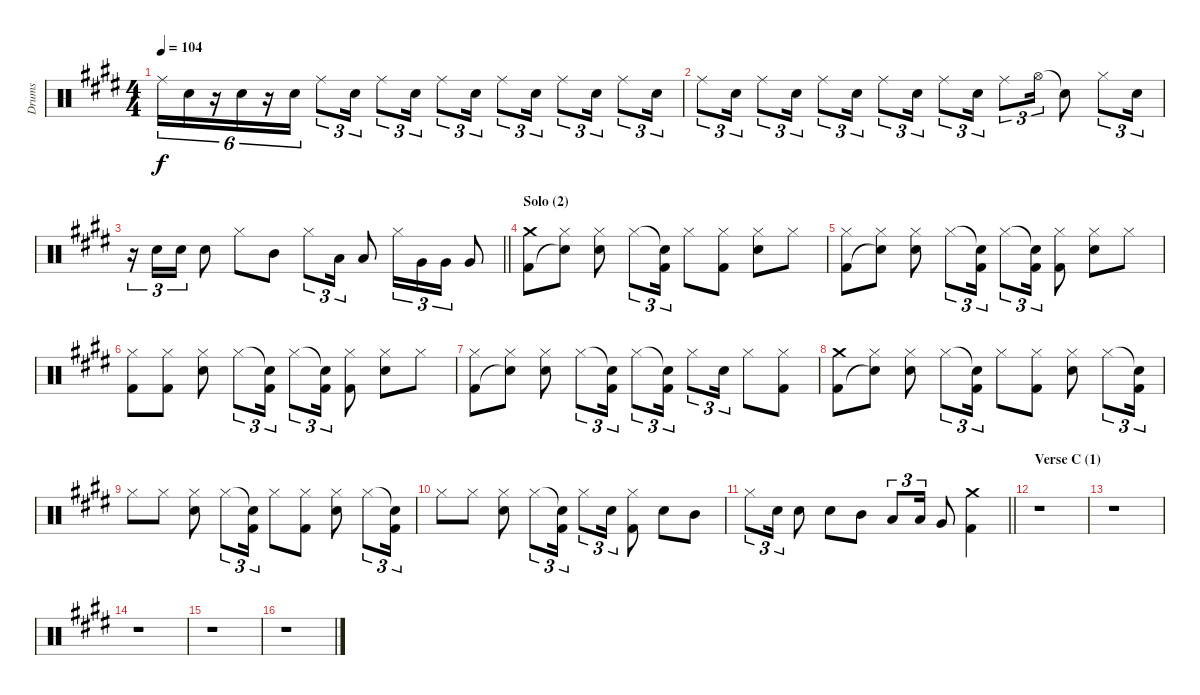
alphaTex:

\track ("Drums" "Drums") {instrument percussion}
\staff {score}
\articulation defaults
\ts (4 4)
\tempo 104
\clef neutral
\ks c#minor "Ride (middle)".16{tu (6 4) dy f} "Electric Snare (hit)".16{tu (6 4)}
r.16{tu (6 4)} "Electric Snare (hit)".16{tu (6 4)} r.16{tu (6 4)} "Electric Snare (hit)".16{tu (6 4)} "Ride (middle)".8{tu (3 2)} "Electric Snare (hit)".16{tu (3 2)} "Ride (middle)".8{tu (3 2)} "Electric Snare (hit)".16{tu (3 2)} "Ride (middle)".8{tu (3 2)} "Electric Snare (hit)".16{tu (3 2)} "Ride (middle)".8{tu (3 2)} "Electric Snare (hit)".16{tu (3 2)} "Ride (middle)".8{tu (3 2)} "Electric Snare (hit)".16{tu (3 2)} "Ride (middle)".8{tu (3 2)} "Electric Snare (hit)".16{tu (3 2)} |
"Ride (middle)".8{tu (3 2)} "Electric Snare (hit)".16{tu (3 2)} "Ride (middle)".8{tu (3 2)} "Electric Snare (hit)".16{tu (3 2)} "Ride (middle)".8{tu (3 2)} "Electric Snare (hit)".16{tu (3 2)} "Ride (middle)".8{tu (3 2)} "Electric Snare (hit)".16{tu (3 2)} "Ride (middle)".8{tu (3 2)} "Electric Snare (hit)".16{tu (3 2)} "Ride (middle)".8{tu (3 2)} "Hi-Hat (open)".16{tu (3 2)} "Snare (hit)"{t}.8 "Hi-Hat (closed)".8{tu (3 2)} "Electric Snare (hit)".16{tu (3 2)} |
\barLineRight lightlight
r.16{tu (3 2)} "Electric Snare (hit)".16{tu (3 2)} "Electric Snare (hit)".16{tu (3 2)} "Electric Snare (hit)".8 "Hi-Hat (closed)".8 "Mid Tom (hit)".8 "Hi-Hat (closed)".8{tu (3 2)} "Low Tom (hit)".16{tu (3 2)} "Low Tom (hit)".8 "Hi-Hat (closed)".16{tu (3 2)} "Very Low Tom (hit)".16{tu (3 2)} "Very Low Tom (hit)".16{tu (3 2)} "Very Low Tom (hit)".8 |
\section ("" "Solo (2)")
("Crash medium (hit)" "Kick (hit) 2").8 ("Hi-Hat (closed)" "Snare (hit)"{t}).8 ("Hi-Hat (closed)" "Electric Snare (hit)").8 "Hi-Hat (closed)".8{tu (3 2)} ("Snare (hit)"{t} "Kick (hit) 2").16{tu (3 2)} "Hi-Hat (closed)".8 ("Hi-Hat (closed)" "Kick (hit) 2").8 ("Hi-Hat (closed)" "Electric Snare (hit)").8 "Hi-Hat (closed)".8 |
("Hi-Hat (closed)" "Kick (hit) 2").8 ("Hi-Hat (closed)" "Snare (hit)"{t}).8 ("Hi-Hat (closed)" "Electric Snare (hit)").8 "Hi-Hat (closed)".8{tu (3 2)} ("Snare (hit)"{t} "Kick (hit) 2").16{tu (3 2)} "Hi-Hat (closed)".8{tu (3 2)} ("Snare (hit)"{t} "Kick (hit) 2").16{tu (3 2)} ("Hi-Hat (closed)" "Kick (hit) 2").8 ("Hi-Hat (closed)" "Electric Snare (hit)").8 "Hi-Hat (closed)".8 |
("Hi-Hat (closed)" "Kick (hit) 2").8 ("Hi-Hat (closed)" "Kick (hit) 2").8 ("Hi-Hat (closed)" "Electric Snare (hit)").8 "Hi-Hat (closed)".8{tu (3 2)} ("Snare (hit)"{t} "Kick (hit) 2").16{tu (3 2)} "Hi-Hat (closed)".8{tu (3 2)} ("Snare (hit)"{t} "Kick (hit) 2").16{tu (3 2)} ("Hi-Hat (closed)" "Kick (hit) 2").8 ("Hi-Hat (closed)" "Electric Snare (hit)").8 "Hi-Hat (closed)".8 |
("Hi-Hat (closed)" "Kick (hit) 2").8 ("Hi-Hat (closed)" "Snare (hit)"{t}).8 ("Hi-Hat (closed)" "Electric Snare (hit)").8 "Hi-Hat (closed)".8{tu (3 2)} ("Snare (hit)"{t} "Kick (hit) 2").16{tu (3 2)} "Hi-Hat (closed)".8{tu (3 2)} ("Snare (hit)"{t} "Kick (hit) 2").16{tu (3 2)} "Hi-Hat (closed)".8{tu (3 2)} "Electric Snare (hit)".16{tu (3 2)} "Hi-Hat (closed)".8 ("Hi-Hat (closed)" "Kick (hit) 2").8 |
("Crash medium (hit)" "Kick (hit) 2").8 ("Hi-Hat (closed)" "Snare (hit)"{t}).8 ("Hi-Hat (closed)" "Electric Snare (hit)").8 "Hi-Hat (closed)".8{tu (3 2)} ("Snare (hit)"{t} "Kick (hit) 2").16{tu (3 2)} "Hi-Hat (closed)".8 ("Hi-Hat (closed)" "Kick (hit) 2").8 ("Hi-Hat (closed)" "Electric Snare (hit)").8 "Hi-Hat (closed)".8{tu (3 2)} ("Snare (hit)"{t} "Kick (hit) 2").16{tu (3 2)} |
"Hi-Hat (closed)".8 "Hi-Hat (closed)".8 ("Hi-Hat (closed)" "Electric Snare (hit)").8 "Hi-Hat (closed)".8{tu (3 2)} ("Snare (hit)"{t} "Kick (hit) 2").16{tu (3 2)} "Hi-Hat (closed)".8 ("Hi-Hat (closed)" "Kick (hit) 2").8 ("Hi-Hat (closed)" "Electric Snare (hit)").8 "Hi-Hat (closed)".8{tu (3 2)} ("Snare (hit)"{t} "Kick (hit) 2").16{tu (3 2)} |
"Hi-Hat (closed)".8 "Hi-Hat (closed)".8 ("Hi-Hat (closed)" "Electric Snare (hit)").8 "Hi-Hat (closed)".8{tu (3 2)} ("Snare (hit)"{t} "Kick (hit) 2").16{tu (3 2)} "Hi-Hat (closed)".8{tu (3 2)} "Electric Snare (hit)".16{tu (3 2)} ("Hi-Hat (closed)" "Kick (hit) 2").8 "Electric Snare (hit)".8 "Mid Tom (hit)".8 |
\barLineRight lightlight "Hi-Hat (closed)".8{tu (3 2)} "Electric Snare (hit)".16{tu (3 2)} "Electric Snare (hit)".8 "Electric Snare (hit)".8 "Mid Tom (hit)".8 "Low Tom (hit)".8{tu (3 2)} "Low Tom (hit)".16{tu (3 2)} "Very Low Tom (hit)".8
("Crash medium (hit)" "Kick (hit) 2").4 |
\section ("" "Verse C (1)")
r.1 |
r.1 |
r.1 |
r.1 |
r.1
